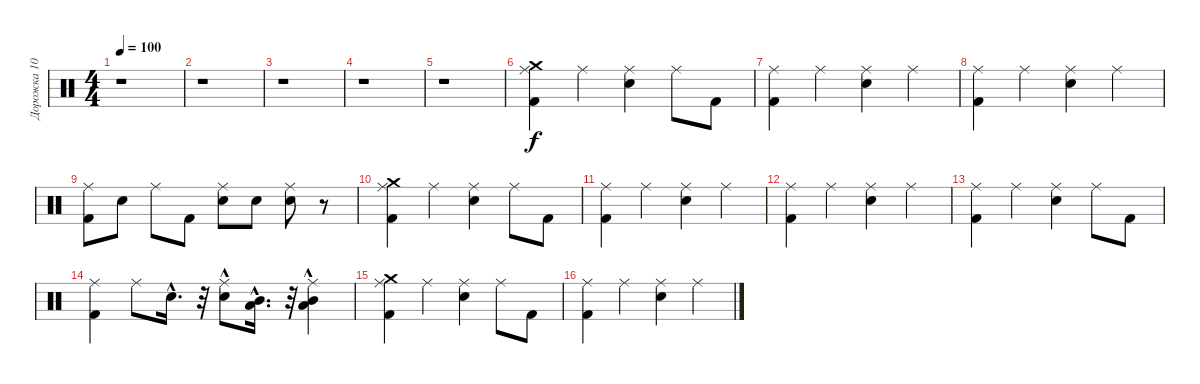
\track ("Дорожка 10" "Дорожка 10") {instrument percussion}
\staff {score}
\articulation defaults
\ts (4 4)
\tempo 100
\clef neutral
\ks c
r.1{dy f} |
r.1 |
r.1 |
r.1 |
r.1 |
("Ride (middle)" "Kick (hit) 2" "Crash medium (hit)").4 "Ride (middle)".4 ("Snare (hit) 2" "Ride (middle)").4 "Ride (middle)".8 "Kick (hit) 2".8 |
("Ride (middle)" "Kick (hit) 2").4 "Ride (middle)".4 ("Ride (middle)" "Snare (hit) 2").4 "Ride (middle)".4 |
("Ride (middle)" "Kick (hit) 2").4 "Ride (middle)".4 ("Ride (middle)" "Snare (hit) 2").4 "Ride (middle)".4 |
("Ride (middle)" "Kick (hit) 2").8 "Snare (hit) 2".8 "Ride (middle)".8 "Kick (hit) 2".8 ("Snare (hit) 2" "Ride (middle)").8 "Snare (hit) 2".8 ("Snare (hit) 2" "Ride (middle)").8 r.8 |
("Ride (middle)" "Kick (hit) 2" "Crash medium (hit)").4 "Ride (middle)".4 ("Snare (hit) 2" "Ride (middle)").4 "Ride (middle)".8 "Kick (hit) 2".8 |
("Ride (middle)" "Kick (hit) 2").4 "Ride (middle)".4 ("Ride (middle)" "Snare (hit) 2").4 "Ride (middle)".4 |
("Ride (middle)" "Kick (hit) 2").4 "Ride (middle)".4 ("Ride (middle)" "Snare (hit) 2").4 "Ride (middle)".4 |
("Ride (middle)" "Kick (hit) 2").4 "Ride (middle)".4 ("Snare (hit) 2" "Ride (middle)").4 "Ride (middle)".8 "Kick (hit) 2".8 |
("Ride (middle)" "Kick (hit) 2").4 "Ride (middle)".8 "Snare (hit) 2"{hac}.16{d} r.32 ("Snare (hit) 2"{hac} "Ride (middle)").8 ("Mid Tom (hit)"{hac} "Low Tom (hit)"{hac}).16{d} r.32 ("Low Tom (hit)" "Mid Tom (hit)"{hac} "Ride (middle)").4 |
("Ride (middle)" "Kick (hit) 2" "Crash medium (hit)").4 "Ride (middle)".4 ("Snare (hit) 2" "Ride (middle)").4 "Ride (middle)".8 "Kick (hit) 2".8 |
("Ride (middle)" "Kick (hit) 2").4 "Ride (middle)".4 ("Ride (middle)" "Snare (hit) 2").4 "Ride (middle)".4
